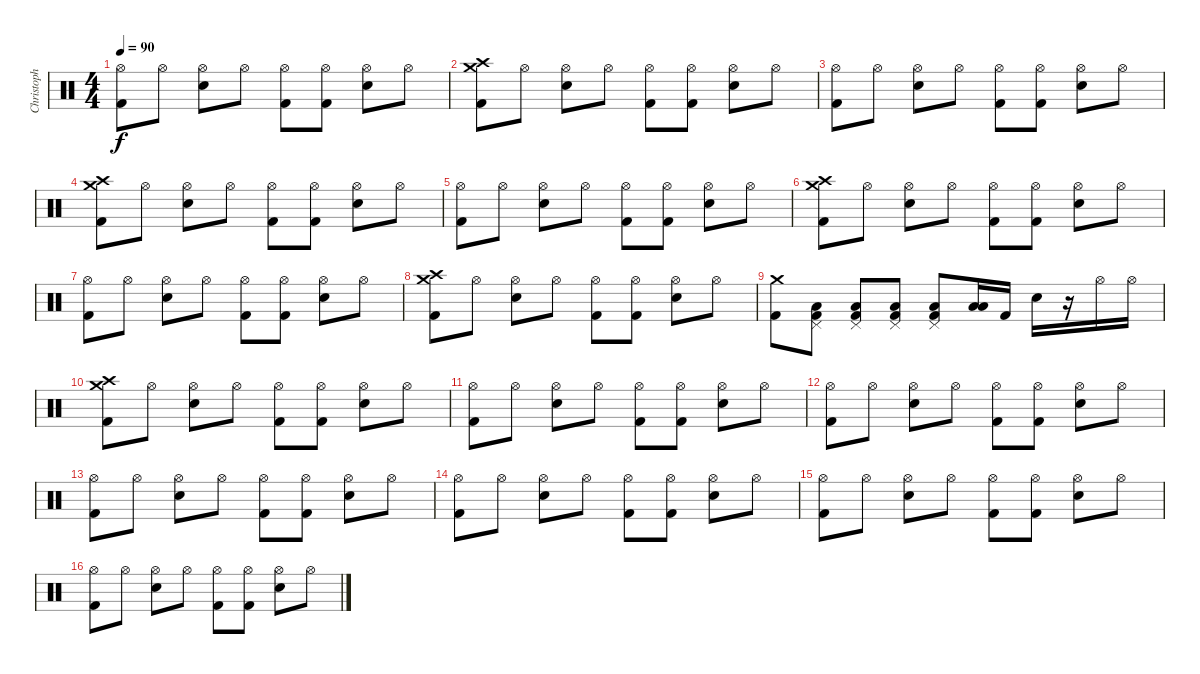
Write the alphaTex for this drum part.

\track ("Christoph Schneider" "Christoph ") {instrument percussion}
\staff {score}
\articulation defaults
\ts (4 4)
\tempo 90
\clef neutral
\ks c
("Kick (hit) 2" "Hi-Hat (open)").8{dy f} "Hi-Hat (open)".8 ("Snare (hit) 2" "Hi-Hat (open)").8 "Hi-Hat (open)".8 ("Kick (hit) 2" "Hi-Hat (open)").8 ("Kick (hit) 2" "Hi-Hat (open)").8 ("Snare (hit) 2" "Hi-Hat (open)").8 "Hi-Hat (open)".8 |
("Crash medium (hit)" "Kick (hit) 2" "Crash high (hit)").8 "Hi-Hat (open)".8 ("Snare (hit) 2" "Hi-Hat (open)").8 "Hi-Hat (open)".8 ("Kick (hit) 2" "Hi-Hat (open)").8 ("Kick (hit) 2" "Hi-Hat (open)").8 ("Snare (hit) 2" "Hi-Hat (open)").8 "Hi-Hat (open)".8 |
("Kick (hit) 2" "Hi-Hat (open)").8 "Hi-Hat (open)".8 ("Snare (hit) 2" "Hi-Hat (open)").8 "Hi-Hat (open)".8 ("Kick (hit) 2" "Hi-Hat (open)").8 ("Kick (hit) 2" "Hi-Hat (open)").8 ("Snare (hit) 2" "Hi-Hat (open)").8 "Hi-Hat (open)".8 |
("Crash medium (hit)" "Kick (hit) 2" "Crash high (hit)").8 "Hi-Hat (open)".8 ("Snare (hit) 2" "Hi-Hat (open)").8 "Hi-Hat (open)".8 ("Kick (hit) 2" "Hi-Hat (open)").8 ("Kick (hit) 2" "Hi-Hat (open)").8 ("Snare (hit) 2" "Hi-Hat (open)").8 "Hi-Hat (open)".8 |
("Kick (hit) 2" "Hi-Hat (open)").8 "Hi-Hat (open)".8 ("Snare (hit) 2" "Hi-Hat (open)").8 "Hi-Hat (open)".8 ("Kick (hit) 2" "Hi-Hat (open)").8 ("Kick (hit) 2" "Hi-Hat (open)").8 ("Snare (hit) 2" "Hi-Hat (open)").8 "Hi-Hat (open)".8 |
("Crash medium (hit)" "Kick (hit) 2" "Crash high (hit)").8 "Hi-Hat (open)".8 ("Snare (hit) 2" "Hi-Hat (open)").8 "Hi-Hat (open)".8 ("Kick (hit) 2" "Hi-Hat (open)").8 ("Kick (hit) 2" "Hi-Hat (open)").8 ("Snare (hit) 2" "Hi-Hat (open)").8 "Hi-Hat (open)".8 |
("Kick (hit) 2" "Hi-Hat (open)").8 "Hi-Hat (open)".8 ("Snare (hit) 2" "Hi-Hat (open)").8 "Hi-Hat (open)".8 ("Kick (hit) 2" "Hi-Hat (open)").8 ("Kick (hit) 2" "Hi-Hat (open)").8 ("Snare (hit) 2" "Hi-Hat (open)").8 "Hi-Hat (open)".8 |
("Crash medium (hit)" "Kick (hit) 2" "Crash high (hit)").8 "Hi-Hat (open)".8 ("Snare (hit) 2" "Hi-Hat (open)").8 "Hi-Hat (open)".8 ("Kick (hit) 2" "Hi-Hat (open)").8 ("Kick (hit) 2" "Hi-Hat (open)").8 ("Snare (hit) 2" "Hi-Hat (open)").8 "Hi-Hat (open)".8 |
("Crash medium (hit)" "Kick (hit) 2").8 ("Kick (hit) 2" "Low Tom (hit)" "Pedal Hi-Hat (hit)").8 ("Kick (hit) 2" "Low Tom (hit)" "Pedal Hi-Hat (hit)").8 ("Kick (hit) 2" "Low Tom (hit)" "Pedal Hi-Hat (hit)").8 ("Kick (hit) 2" "Low Tom (hit)" "Pedal Hi-Hat (hit)").8 ("Low Tom (hit)" "Low Tom (hit)").16 "Kick (hit) 2".16 "Snare (hit) 2".16 r.16 "Hi-Hat (open)".16 "Hi-Hat (open)".16 |
("Crash medium (hit)" "Kick (hit) 2" "Crash high (hit)").8 "Hi-Hat (open)".8 ("Snare (hit) 2" "Hi-Hat (open)").8 "Hi-Hat (open)".8 ("Kick (hit) 2" "Hi-Hat (open)").8 ("Kick (hit) 2" "Hi-Hat (open)").8 ("Snare (hit) 2" "Hi-Hat (open)").8 "Hi-Hat (open)".8 |
("Kick (hit) 2" "Hi-Hat (open)").8 "Hi-Hat (open)".8 ("Snare (hit) 2" "Hi-Hat (open)").8 "Hi-Hat (open)".8 ("Kick (hit) 2" "Hi-Hat (open)").8 ("Kick (hit) 2" "Hi-Hat (open)").8 ("Snare (hit) 2" "Hi-Hat (open)").8 "Hi-Hat (open)".8 |
("Kick (hit) 2" "Hi-Hat (open)").8 "Hi-Hat (open)".8 ("Snare (hit) 2" "Hi-Hat (open)").8 "Hi-Hat (open)".8 ("Kick (hit) 2" "Hi-Hat (open)").8 ("Kick (hit) 2" "Hi-Hat (open)").8 ("Snare (hit) 2" "Hi-Hat (open)").8 "Hi-Hat (open)".8 |
("Kick (hit) 2" "Hi-Hat (open)").8 "Hi-Hat (open)".8 ("Snare (hit) 2" "Hi-Hat (open)").8 "Hi-Hat (open)".8 ("Kick (hit) 2" "Hi-Hat (open)").8 ("Kick (hit) 2" "Hi-Hat (open)").8 ("Snare (hit) 2" "Hi-Hat (open)").8 "Hi-Hat (open)".8 |
("Kick (hit) 2" "Hi-Hat (open)").8 "Hi-Hat (open)".8 ("Snare (hit) 2" "Hi-Hat (open)").8 "Hi-Hat (open)".8 ("Kick (hit) 2" "Hi-Hat (open)").8 ("Kick (hit) 2" "Hi-Hat (open)").8 ("Snare (hit) 2" "Hi-Hat (open)").8 "Hi-Hat (open)".8 |
("Kick (hit) 2" "Hi-Hat (open)").8 "Hi-Hat (open)".8 ("Snare (hit) 2" "Hi-Hat (open)").8 "Hi-Hat (open)".8 ("Kick (hit) 2" "Hi-Hat (open)").8 ("Kick (hit) 2" "Hi-Hat (open)").8 ("Snare (hit) 2" "Hi-Hat (open)").8 "Hi-Hat (open)".8 |
("Kick (hit) 2" "Hi-Hat (open)").8 "Hi-Hat (open)".8 ("Snare (hit) 2" "Hi-Hat (open)").8 "Hi-Hat (open)".8 ("Kick (hit) 2" "Hi-Hat (open)").8 ("Kick (hit) 2" "Hi-Hat (open)").8 ("Snare (hit) 2" "Hi-Hat (open)").8 "Hi-Hat (open)".8
